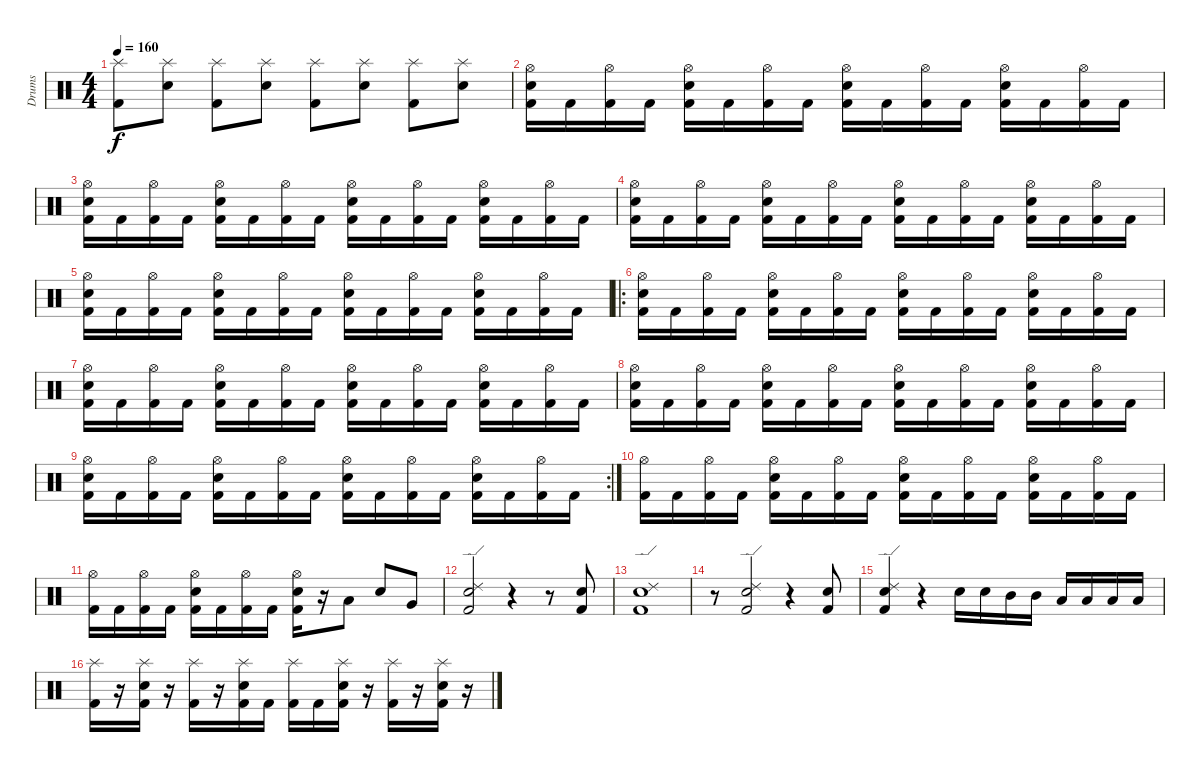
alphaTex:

\track ("Drums" "Drums") {instrument percussion}
\staff {score}
\articulation defaults
\ts (4 4)
\tempo 160
\clef neutral
\ks c
("Splash (hit)" "Kick (hit) 2").8{dy f} ("Splash (hit)" "Electric Snare (hit)").8 ("Splash (hit)" "Kick (hit) 2").8 ("Splash (hit)" "Electric Snare (hit)").8 ("Splash (hit)" "Kick (hit) 2").8 ("Splash (hit)" "Electric Snare (hit)").8 ("Splash (hit)" "Kick (hit) 2").8 ("Splash (hit)" "Electric Snare (hit)").8 |
("Hi-Hat (open)" "Electric Snare (hit)" "Kick (hit) 2").16 "Kick (hit) 2".16 ("Hi-Hat (open)" "Kick (hit) 2").16 "Kick (hit) 2".16 ("Hi-Hat (open)" "Electric Snare (hit)" "Kick (hit) 2").16 "Kick (hit) 2".16 ("Hi-Hat (open)" "Kick (hit) 2").16 "Kick (hit) 2".16 ("Hi-Hat (open)" "Electric Snare (hit)" "Kick (hit) 2").16 "Kick (hit) 2".16 ("Hi-Hat (open)" "Kick (hit) 2").16 "Kick (hit) 2".16 ("Hi-Hat (open)" "Electric Snare (hit)" "Kick (hit) 2").16 "Kick (hit) 2".16 ("Hi-Hat (open)" "Kick (hit) 2").16 "Kick (hit) 2".16 |
("Hi-Hat (open)" "Electric Snare (hit)" "Kick (hit) 2").16 "Kick (hit) 2".16 ("Hi-Hat (open)" "Kick (hit) 2").16 "Kick (hit) 2".16 ("Hi-Hat (open)" "Electric Snare (hit)" "Kick (hit) 2").16 "Kick (hit) 2".16 ("Hi-Hat (open)" "Kick (hit) 2").16 "Kick (hit) 2".16 ("Hi-Hat (open)" "Electric Snare (hit)" "Kick (hit) 2").16 "Kick (hit) 2".16 ("Hi-Hat (open)" "Kick (hit) 2").16 "Kick (hit) 2".16 ("Hi-Hat (open)" "Electric Snare (hit)" "Kick (hit) 2").16 "Kick (hit) 2".16 ("Hi-Hat (open)" "Kick (hit) 2").16 "Kick (hit) 2".16 |
("Hi-Hat (open)" "Electric Snare (hit)" "Kick (hit) 2").16 "Kick (hit) 2".16 ("Hi-Hat (open)" "Kick (hit) 2").16 "Kick (hit) 2".16 ("Hi-Hat (open)" "Electric Snare (hit)" "Kick (hit) 2").16 "Kick (hit) 2".16 ("Hi-Hat (open)" "Kick (hit) 2").16 "Kick (hit) 2".16 ("Hi-Hat (open)" "Electric Snare (hit)" "Kick (hit) 2").16 "Kick (hit) 2".16 ("Hi-Hat (open)" "Kick (hit) 2").16 "Kick (hit) 2".16 ("Hi-Hat (open)" "Electric Snare (hit)" "Kick (hit) 2").16 "Kick (hit) 2".16 ("Hi-Hat (open)" "Kick (hit) 2").16 "Kick (hit) 2".16 |
("Hi-Hat (open)" "Electric Snare (hit)" "Kick (hit) 2").16 "Kick (hit) 2".16 ("Hi-Hat (open)" "Kick (hit) 2").16 "Kick (hit) 2".16 ("Hi-Hat (open)" "Electric Snare (hit)" "Kick (hit) 2").16 "Kick (hit) 2".16 ("Hi-Hat (open)" "Kick (hit) 2").16 "Kick (hit) 2".16 ("Hi-Hat (open)" "Electric Snare (hit)" "Kick (hit) 2").16 "Kick (hit) 2".16 ("Hi-Hat (open)" "Kick (hit) 2").16 "Kick (hit) 2".16 ("Hi-Hat (open)" "Electric Snare (hit)" "Kick (hit) 2").16 "Kick (hit) 2".16 ("Hi-Hat (open)" "Kick (hit) 2").16 "Kick (hit) 2".16 |
\ro
("Hi-Hat (open)" "Electric Snare (hit)" "Kick (hit) 2").16 "Kick (hit) 2".16 ("Hi-Hat (open)" "Kick (hit) 2").16 "Kick (hit) 2".16 ("Hi-Hat (open)" "Electric Snare (hit)" "Kick (hit) 2").16 "Kick (hit) 2".16 ("Hi-Hat (open)" "Kick (hit) 2").16 "Kick (hit) 2".16 ("Hi-Hat (open)" "Electric Snare (hit)" "Kick (hit) 2").16 "Kick (hit) 2".16 ("Hi-Hat (open)" "Kick (hit) 2").16 "Kick (hit) 2".16 ("Hi-Hat (open)" "Electric Snare (hit)" "Kick (hit) 2").16 "Kick (hit) 2".16 ("Hi-Hat (open)" "Kick (hit) 2").16 "Kick (hit) 2".16 |
("Hi-Hat (open)" "Electric Snare (hit)" "Kick (hit) 2").16 "Kick (hit) 2".16 ("Hi-Hat (open)" "Kick (hit) 2").16 "Kick (hit) 2".16 ("Hi-Hat (open)" "Electric Snare (hit)" "Kick (hit) 2").16 "Kick (hit) 2".16 ("Hi-Hat (open)" "Kick (hit) 2").16 "Kick (hit) 2".16 ("Hi-Hat (open)" "Electric Snare (hit)" "Kick (hit) 2").16 "Kick (hit) 2".16 ("Hi-Hat (open)" "Kick (hit) 2").16 "Kick (hit) 2".16 ("Hi-Hat (open)" "Electric Snare (hit)" "Kick (hit) 2").16 "Kick (hit) 2".16 ("Hi-Hat (open)" "Kick (hit) 2").16 "Kick (hit) 2".16 |
("Hi-Hat (open)" "Electric Snare (hit)" "Kick (hit) 2").16 "Kick (hit) 2".16 ("Hi-Hat (open)" "Kick (hit) 2").16 "Kick (hit) 2".16 ("Hi-Hat (open)" "Electric Snare (hit)" "Kick (hit) 2").16 "Kick (hit) 2".16 ("Hi-Hat (open)" "Kick (hit) 2").16 "Kick (hit) 2".16 ("Hi-Hat (open)" "Electric Snare (hit)" "Kick (hit) 2").16 "Kick (hit) 2".16 ("Hi-Hat (open)" "Kick (hit) 2").16 "Kick (hit) 2".16 ("Hi-Hat (open)" "Electric Snare (hit)" "Kick (hit) 2").16 "Kick (hit) 2".16 ("Hi-Hat (open)" "Kick (hit) 2").16 "Kick (hit) 2".16 |
\rc 2
("Hi-Hat (open)" "Electric Snare (hit)" "Kick (hit) 2").16 "Kick (hit) 2".16 ("Hi-Hat (open)" "Kick (hit) 2").16 "Kick (hit) 2".16 ("Hi-Hat (open)" "Electric Snare (hit)" "Kick (hit) 2").16 "Kick (hit) 2".16 ("Hi-Hat (open)" "Kick (hit) 2").16 "Kick (hit) 2".16 ("Hi-Hat (open)" "Electric Snare (hit)" "Kick (hit) 2").16 "Kick (hit) 2".16 ("Hi-Hat (open)" "Kick (hit) 2").16 "Kick (hit) 2".16 ("Hi-Hat (open)" "Electric Snare (hit)" "Kick (hit) 2").16 "Kick (hit) 2".16 ("Hi-Hat (open)" "Kick (hit) 2").16 "Kick (hit) 2".16 |
("Hi-Hat (open)" "Kick (hit) 2").16 "Kick (hit) 2".16 ("Hi-Hat (open)" "Kick (hit) 2").16 "Kick (hit) 2".16 ("Hi-Hat (open)" "Electric Snare (hit)" "Kick (hit) 2").16 "Kick (hit) 2".16 ("Hi-Hat (open)" "Kick (hit) 2").16 "Kick (hit) 2".16 ("Hi-Hat (open)" "Electric Snare (hit)" "Kick (hit) 2").16 "Kick (hit) 2".16 ("Hi-Hat (open)" "Kick (hit) 2").16 "Kick (hit) 2".16 ("Hi-Hat (open)" "Electric Snare (hit)" "Kick (hit) 2").16 "Kick (hit) 2".16 ("Hi-Hat (open)" "Kick (hit) 2").16 "Kick (hit) 2".16 |
("Hi-Hat (open)" "Kick (hit) 2").16 "Kick (hit) 2".16 ("Hi-Hat (open)" "Kick (hit) 2").16 "Kick (hit) 2".16 ("Hi-Hat (open)" "Electric Snare (hit)" "Kick (hit) 2").16 "Kick (hit) 2".16 ("Hi-Hat (open)" "Kick (hit) 2").16 "Kick (hit) 2".16 ("Hi-Hat (open)" "Electric Snare (hit)" "Kick (hit) 2").16 r.16 "Low Tom (hit)".8 "Electric Snare (hit)".8 "Very Low Tom (hit)".8 |
("Ride (edge) 2" "Electric Snare (hit)" "Kick (hit) 2").2 r.4 r.8 ("Electric Snare (hit)" "Kick (hit) 2").8 |
("Ride (edge) 2" "Electric Snare (hit)" "Kick (hit) 2").1 |
r.8 ("Ride (edge) 2" "Electric Snare (hit)" "Kick (hit) 2").2 r.4 ("Electric Snare (hit)" "Kick (hit) 2").8 |
("Ride (edge) 2" "Electric Snare (hit)" "Kick (hit) 2").4 r.4 "Electric Snare (hit)".16 "Electric Snare (hit)".16 "Mid Tom (hit)".16 "Mid Tom (hit)".16 "Low Tom (hit)".16 "Low Tom (hit)".16 "Low Floor Tom (hit)".16 "Low Floor Tom (hit)".16 |
("Splash (hit)" "Kick (hit) 2").16 r.16 ("Splash (hit)" "Electric Snare (hit)" "Kick (hit) 2").16 r.16 ("Splash (hit)" "Kick (hit) 2").16 r.16 ("Splash (hit)" "Electric Snare (hit)" "Kick (hit) 2").16 "Kick (hit) 2".16 ("Splash (hit)" "Kick (hit) 2").16 "Kick (hit) 2".16 ("Splash (hit)" "Electric Snare (hit)" "Kick (hit) 2").16 r.16 ("Splash (hit)" "Kick (hit) 2").16 r.16 ("Splash (hit)" "Electric Snare (hit)" "Kick (hit) 2").16 r.16
